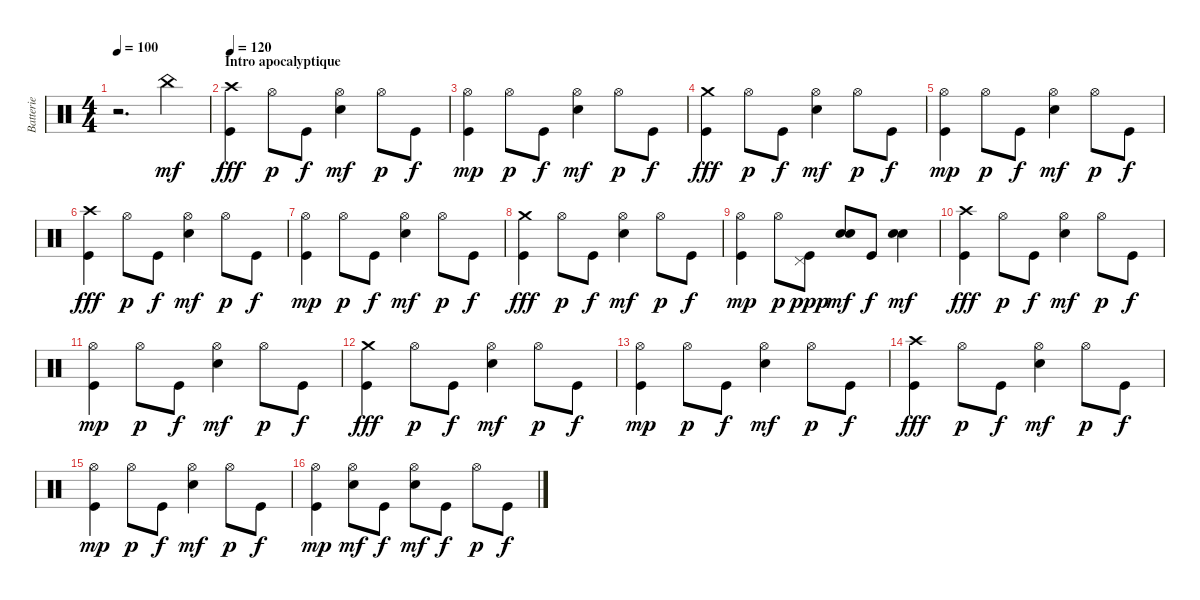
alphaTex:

\track ("Batterie" "Batterie") {instrument percussion}
\staff {score}
\articulation defaults
\ts (4 4)
\tempo 100
\clef neutral
\ks c
r.2{d dy mf} "China (hit)".4 |
\section ("" "Intro apocalyptique")
\tempo 120
("Crash high (hit)" "Kick (hit)").4{dy fff} "Hi-Hat (open)".8{dy p} "Kick (hit)".8{dy f} ("Hi-Hat (open)" "Electric Snare (hit)").4{dy mf} "Hi-Hat (open)".8{dy p} "Kick (hit)".8{dy f} |
("Hi-Hat (open)" "Kick (hit)").4{dy mp} "Hi-Hat (open)".8{dy p} "Kick (hit)".8{dy f} ("Hi-Hat (open)" "Electric Snare (hit)").4{dy mf} "Hi-Hat (open)".8{dy p} "Kick (hit)".8{dy f} |
("Crash medium (hit)" "Kick (hit)").4{dy fff} "Hi-Hat (open)".8{dy p} "Kick (hit)".8{dy f} ("Hi-Hat (open)" "Electric Snare (hit)").4{dy mf} "Hi-Hat (open)".8{dy p} "Kick (hit)".8{dy f} |
("Hi-Hat (open)" "Kick (hit)").4{dy mp} "Hi-Hat (open)".8{dy p} "Kick (hit)".8{dy f} ("Hi-Hat (open)" "Electric Snare (hit)").4{dy mf} "Hi-Hat (open)".8{dy p} "Kick (hit)".8{dy f} |
("Crash high (hit)" "Kick (hit)").4{dy fff} "Hi-Hat (open)".8{dy p} "Kick (hit)".8{dy f} ("Hi-Hat (open)" "Electric Snare (hit)").4{dy mf} "Hi-Hat (open)".8{dy p} "Kick (hit)".8{dy f} |
("Hi-Hat (open)" "Kick (hit)").4{dy mp} "Hi-Hat (open)".8{dy p} "Kick (hit)".8{dy f} ("Hi-Hat (open)" "Electric Snare (hit)").4{dy mf} "Hi-Hat (open)".8{dy p} "Kick (hit)".8{dy f} |
("Crash medium (hit)" "Kick (hit)").4{dy fff} "Hi-Hat (open)".8{dy p} "Kick (hit)".8{dy f} ("Hi-Hat (open)" "Electric Snare (hit)").4{dy mf} "Hi-Hat (open)".8{dy p} "Kick (hit)".8{dy f} |
("Hi-Hat (open)" "Kick (hit)").4{dy mp} "Hi-Hat (open)".8{dy p} ("Pedal Hi-Hat (hit)" "Kick (hit)").8{dy ppp} ("Electric Snare (hit)" "Electric Snare (hit)").8{bu 120 dy mf} "Kick (hit)".8{dy f} ("Electric Snare (hit)" "Electric Snare (hit)").4{bu 120 dy mf} |
("Crash high (hit)" "Kick (hit)").4{dy fff} "Hi-Hat (open)".8{dy p} "Kick (hit)".8{dy f} ("Hi-Hat (open)" "Electric Snare (hit)").4{dy mf} "Hi-Hat (open)".8{dy p} "Kick (hit)".8{dy f} |
("Hi-Hat (open)" "Kick (hit)").4{dy mp} "Hi-Hat (open)".8{dy p} "Kick (hit)".8{dy f} ("Hi-Hat (open)" "Electric Snare (hit)").4{dy mf} "Hi-Hat (open)".8{dy p} "Kick (hit)".8{dy f} |
("Crash medium (hit)" "Kick (hit)").4{dy fff} "Hi-Hat (open)".8{dy p} "Kick (hit)".8{dy f} ("Hi-Hat (open)" "Electric Snare (hit)").4{dy mf} "Hi-Hat (open)".8{dy p} "Kick (hit)".8{dy f} |
("Hi-Hat (open)" "Kick (hit)").4{dy mp} "Hi-Hat (open)".8{dy p} "Kick (hit)".8{dy f} ("Hi-Hat (open)" "Electric Snare (hit)").4{dy mf} "Hi-Hat (open)".8{dy p} "Kick (hit)".8{dy f} |
("Crash high (hit)" "Kick (hit)").4{dy fff} "Hi-Hat (open)".8{dy p} "Kick (hit)".8{dy f} ("Hi-Hat (open)" "Electric Snare (hit)").4{dy mf} "Hi-Hat (open)".8{dy p} "Kick (hit)".8{dy f} |
("Hi-Hat (open)" "Kick (hit)").4{dy mp} "Hi-Hat (open)".8{dy p} "Kick (hit)".8{dy f} ("Hi-Hat (open)" "Electric Snare (hit)").4{dy mf} "Hi-Hat (open)".8{dy p} "Kick (hit)".8{dy f} |
("Hi-Hat (open)" "Kick (hit)").4{dy mp} ("Hi-Hat (open)" "Electric Snare (hit)").8{dy mf} "Kick (hit)".8{dy f} ("Hi-Hat (open)" "Electric Snare (hit)").8{dy mf} "Kick (hit)".8{dy f} "Hi-Hat (open)".8{dy p} "Kick (hit)".8{dy f}
